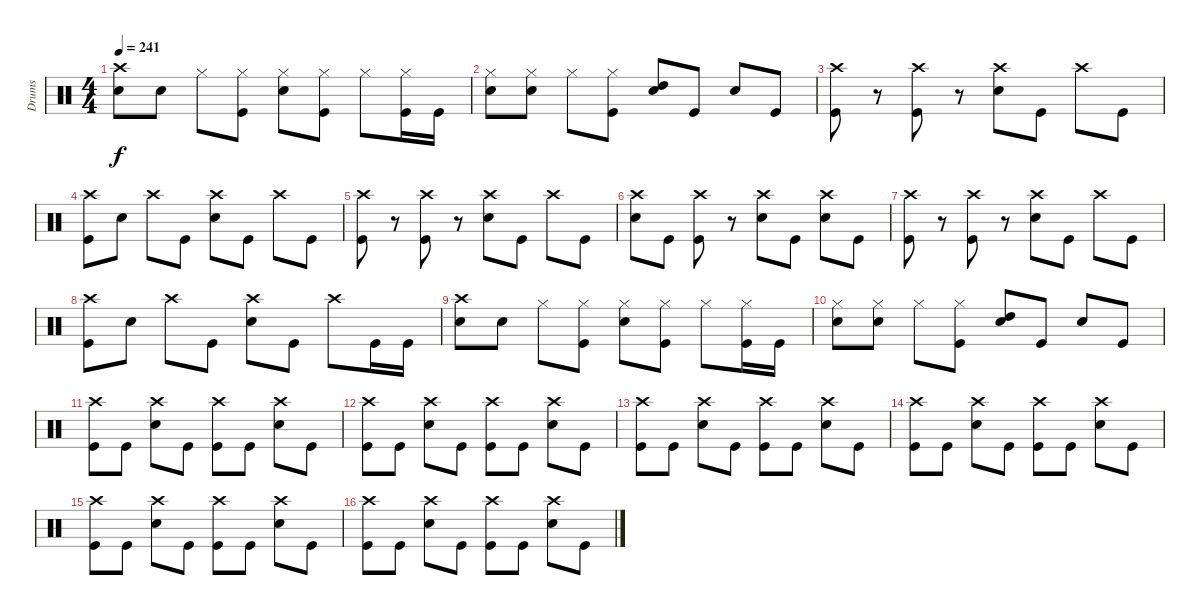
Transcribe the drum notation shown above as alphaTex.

\track ("Drums" "Drums") {instrument percussion}
\staff {score}
\articulation defaults
\ts (4 4)
\tempo 241
\clef neutral
\ks c
("Crash high (hit)" "Electric Snare (hit)").8{dy f} "Electric Snare (hit)".8 "Hi-Hat (closed)".8 ("Hi-Hat (closed)" "Kick (hit)").8 ("Hi-Hat (closed)" "Electric Snare (hit)").8 ("Hi-Hat (closed)" "Kick (hit)").8 "Hi-Hat (closed)".8 ("Hi-Hat (closed)" "Kick (hit)").16 "Kick (hit)".16 |
("Hi-Hat (closed)" "Electric Snare (hit)").8 ("Hi-Hat (closed)" "Electric Snare (hit)").8 "Hi-Hat (closed)".8 ("Hi-Hat (closed)" "Kick (hit)").8 ("High Tom (hit)" "Electric Snare (hit)").8 "Kick (hit)".8 "Electric Snare (hit)".8 "Kick (hit)".8 |
("Crash high (hit)" "Kick (hit)").8 r.8 ("Crash high (hit)" "Kick (hit)").8 r.8 ("Crash high (hit)" "Electric Snare (hit)").8 "Kick (hit)".8 "Crash high (hit)".8 "Kick (hit)".8 |
("Crash high (hit)" "Kick (hit)").8 "Electric Snare (hit)".8 "Crash high (hit)".8 "Kick (hit)".8 ("Crash high (hit)" "Electric Snare (hit)").8 "Kick (hit)".8 "Crash high (hit)".8 "Kick (hit)".8 |
("Crash high (hit)" "Kick (hit)").8 r.8 ("Crash high (hit)" "Kick (hit)").8 r.8 ("Crash high (hit)" "Electric Snare (hit)").8 "Kick (hit)".8 "Crash high (hit)".8 "Kick (hit)".8 |
("Crash high (hit)" "Electric Snare (hit)").8 "Kick (hit)".8 ("Crash high (hit)" "Kick (hit)").8 r.8 ("Crash high (hit)" "Electric Snare (hit)").8 "Kick (hit)".8 ("Crash high (hit)" "Electric Snare (hit)").8 "Kick (hit)".8 |
("Crash high (hit)" "Kick (hit)").8 r.8 ("Crash high (hit)" "Kick (hit)").8 r.8 ("Crash high (hit)" "Electric Snare (hit)").8 "Kick (hit)".8 "Crash high (hit)".8 "Kick (hit)".8 |
("Crash high (hit)" "Kick (hit)").8 "Electric Snare (hit)".8 "Crash high (hit)".8 "Kick (hit)".8 ("Crash high (hit)" "Electric Snare (hit)").8 "Kick (hit)".8 "Crash high (hit)".8 "Kick (hit)".16 "Kick (hit)".16 |
("Crash high (hit)" "Electric Snare (hit)").8 "Electric Snare (hit)".8 "Hi-Hat (closed)".8 ("Hi-Hat (closed)" "Kick (hit)").8 ("Hi-Hat (closed)" "Electric Snare (hit)").8 ("Hi-Hat (closed)" "Kick (hit)").8 "Hi-Hat (closed)".8 ("Hi-Hat (closed)" "Kick (hit)").16 "Kick (hit)".16 |
("Hi-Hat (closed)" "Electric Snare (hit)").8 ("Hi-Hat (closed)" "Electric Snare (hit)").8 "Hi-Hat (closed)".8 ("Hi-Hat (closed)" "Kick (hit)").8 ("High Tom (hit)" "Electric Snare (hit)").8 "Kick (hit)".8 "Electric Snare (hit)".8 "Kick (hit)".8 |
("Crash high (hit)" "Kick (hit)").8 "Kick (hit)".8 ("Crash high (hit)" "Electric Snare (hit)").8 "Kick (hit)".8 ("Crash high (hit)" "Kick (hit)").8 "Kick (hit)".8 ("Crash high (hit)" "Electric Snare (hit)").8 "Kick (hit)".8 |
("Crash high (hit)" "Kick (hit)").8 "Kick (hit)".8 ("Crash high (hit)" "Electric Snare (hit)").8 "Kick (hit)".8 ("Crash high (hit)" "Kick (hit)").8 "Kick (hit)".8 ("Crash high (hit)" "Electric Snare (hit)").8 "Kick (hit)".8 |
("Crash high (hit)" "Kick (hit)").8 "Kick (hit)".8 ("Crash high (hit)" "Electric Snare (hit)").8 "Kick (hit)".8 ("Crash high (hit)" "Kick (hit)").8 "Kick (hit)".8 ("Crash high (hit)" "Electric Snare (hit)").8 "Kick (hit)".8 |
("Crash high (hit)" "Kick (hit)").8 "Kick (hit)".8 ("Crash high (hit)" "Electric Snare (hit)").8 "Kick (hit)".8 ("Crash high (hit)" "Kick (hit)").8 "Kick (hit)".8 ("Crash high (hit)" "Electric Snare (hit)").8 "Kick (hit)".8 |
("Crash high (hit)" "Kick (hit)").8 "Kick (hit)".8 ("Crash high (hit)" "Electric Snare (hit)").8 "Kick (hit)".8 ("Crash high (hit)" "Kick (hit)").8 "Kick (hit)".8 ("Crash high (hit)" "Electric Snare (hit)").8 "Kick (hit)".8 |
("Crash high (hit)" "Kick (hit)").8 "Kick (hit)".8 ("Crash high (hit)" "Electric Snare (hit)").8 "Kick (hit)".8 ("Crash high (hit)" "Kick (hit)").8 "Kick (hit)".8 ("Crash high (hit)" "Electric Snare (hit)").8 "Kick (hit)".8
